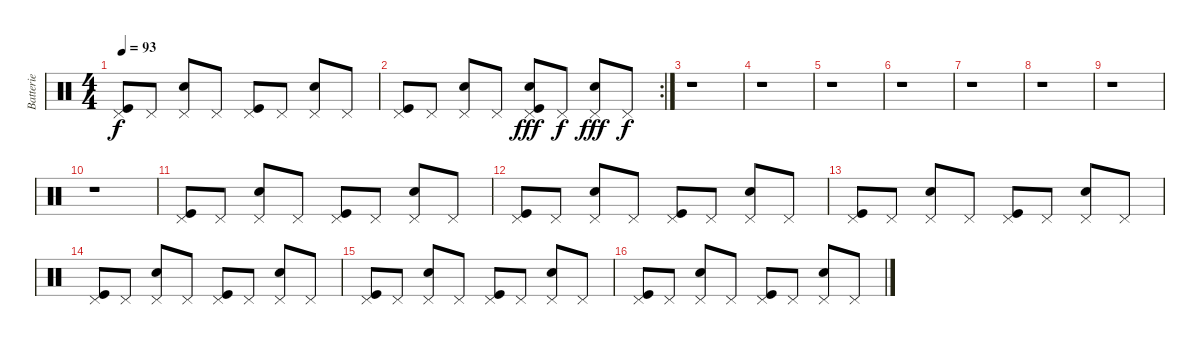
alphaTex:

\track ("Batterie" "Batterie") {instrument percussion}
\staff {score}
\articulation defaults
\ts (4 4)
\tempo 93
\clef neutral
\ks c
("Kick (hit)" "Pedal Hi-Hat (hit)").8{dy f} "Pedal Hi-Hat (hit)".8 ("Snare (hit) 2" "Pedal Hi-Hat (hit)").8 "Pedal Hi-Hat (hit)".8 ("Kick (hit)" "Pedal Hi-Hat (hit)").8 "Pedal Hi-Hat (hit)".8 ("Snare (hit) 2" "Pedal Hi-Hat (hit)").8 "Pedal Hi-Hat (hit)".8 |
\rc 2
("Kick (hit)" "Pedal Hi-Hat (hit)").8 "Pedal Hi-Hat (hit)".8 ("Snare (hit) 2" "Pedal Hi-Hat (hit)").8 "Pedal Hi-Hat (hit)".8 ("Snare (hit) 2" "Kick (hit)" "Pedal Hi-Hat (hit)").8{dy fff} "Pedal Hi-Hat (hit)".8{dy f} ("Snare (hit) 2" "Pedal Hi-Hat (hit)").8{dy fff} "Pedal Hi-Hat (hit)".8{dy f} |
r.1 |
r.1 |
r.1 |
r.1 |
r.1 |
r.1 |
r.1 |
r.1 |
("Kick (hit)" "Pedal Hi-Hat (hit)").8 "Pedal Hi-Hat (hit)".8 ("Snare (hit) 2" "Pedal Hi-Hat (hit)").8 "Pedal Hi-Hat (hit)".8 ("Kick (hit)" "Pedal Hi-Hat (hit)").8 "Pedal Hi-Hat (hit)".8 ("Snare (hit) 2" "Pedal Hi-Hat (hit)").8 "Pedal Hi-Hat (hit)".8 |
("Kick (hit)" "Pedal Hi-Hat (hit)").8 "Pedal Hi-Hat (hit)".8 ("Snare (hit) 2" "Pedal Hi-Hat (hit)").8 "Pedal Hi-Hat (hit)".8 ("Kick (hit)" "Pedal Hi-Hat (hit)").8 "Pedal Hi-Hat (hit)".8 ("Snare (hit) 2" "Pedal Hi-Hat (hit)").8 "Pedal Hi-Hat (hit)".8 |
("Kick (hit)" "Pedal Hi-Hat (hit)").8 "Pedal Hi-Hat (hit)".8 ("Snare (hit) 2" "Pedal Hi-Hat (hit)").8 "Pedal Hi-Hat (hit)".8 ("Kick (hit)" "Pedal Hi-Hat (hit)").8 "Pedal Hi-Hat (hit)".8 ("Snare (hit) 2" "Pedal Hi-Hat (hit)").8 "Pedal Hi-Hat (hit)".8 |
("Kick (hit)" "Pedal Hi-Hat (hit)").8 "Pedal Hi-Hat (hit)".8 ("Snare (hit) 2" "Pedal Hi-Hat (hit)").8 "Pedal Hi-Hat (hit)".8 ("Kick (hit)" "Pedal Hi-Hat (hit)").8 "Pedal Hi-Hat (hit)".8 ("Snare (hit) 2" "Pedal Hi-Hat (hit)").8 "Pedal Hi-Hat (hit)".8 |
("Kick (hit)" "Pedal Hi-Hat (hit)").8 "Pedal Hi-Hat (hit)".8 ("Snare (hit) 2" "Pedal Hi-Hat (hit)").8 "Pedal Hi-Hat (hit)".8 ("Kick (hit)" "Pedal Hi-Hat (hit)").8 "Pedal Hi-Hat (hit)".8 ("Snare (hit) 2" "Pedal Hi-Hat (hit)").8 "Pedal Hi-Hat (hit)".8 |
("Kick (hit)" "Pedal Hi-Hat (hit)").8 "Pedal Hi-Hat (hit)".8 ("Snare (hit) 2" "Pedal Hi-Hat (hit)").8 "Pedal Hi-Hat (hit)".8 ("Kick (hit)" "Pedal Hi-Hat (hit)").8 "Pedal Hi-Hat (hit)".8 ("Snare (hit) 2" "Pedal Hi-Hat (hit)").8 "Pedal Hi-Hat (hit)".8
